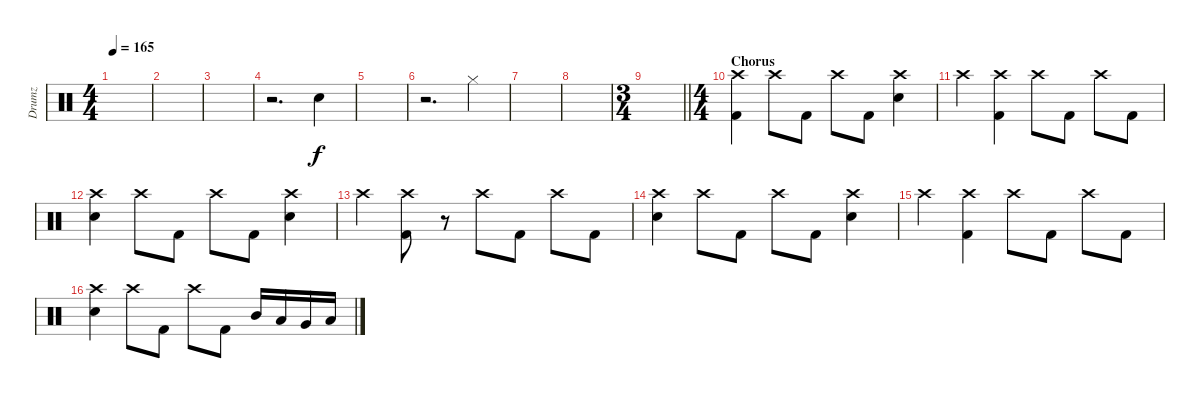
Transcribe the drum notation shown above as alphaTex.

\track ("Drumz" "Drumz") {instrument percussion}
\staff {score}
\articulation defaults
\ts (4 4)
\tempo 165
\clef neutral
\ks c
|
|
|
r.2{d} "Electric Snare (hit)".4 |
|
r.2{d} "Hi-Hat (closed)".4 |
|
|
\ts (3 4)
\barLineRight lightlight
|
\ts (4 4)
\section ("" "Chorus")
("Kick (hit) 2" "Crash high (hit)").4 "Crash high (hit)".8 "Kick (hit) 2".8 "Crash high (hit)".8 "Kick (hit) 2".8 ("Snare (hit) 2" "Crash high (hit)").4 |
"Crash high (hit)".4 ("Kick (hit) 2" "Crash high (hit)").4 "Crash high (hit)".8 "Kick (hit) 2".8 "Crash high (hit)".8 "Kick (hit) 2".8 |
("Snare (hit) 2" "Crash high (hit)").4 "Crash high (hit)".8 "Kick (hit) 2".8 "Crash high (hit)".8 "Kick (hit) 2".8 ("Snare (hit) 2" "Crash high (hit)").4 |
"Crash high (hit)".4 ("Crash high (hit)" "Kick (hit) 2").8 r.8 "Crash high (hit)".8 "Kick (hit) 2".8 "Crash high (hit)".8 "Kick (hit) 2".8 |
("Crash high (hit)" "Snare (hit) 2").4 "Crash high (hit)".8 "Kick (hit) 2".8 "Crash high (hit)".8 "Kick (hit) 2".8 ("Snare (hit) 2" "Crash high (hit)").4 |
"Crash high (hit)".4 ("Crash high (hit)" "Kick (hit) 2").4 "Crash high (hit)".8 "Kick (hit) 2".8 "Crash high (hit)".8 "Kick (hit) 2".8 |
("Crash high (hit)" "Snare (hit) 2").4 "Crash high (hit)".8 "Kick (hit) 2".8 "Crash high (hit)".8 "Kick (hit) 2".8 "Mid Tom (hit)".16 "Low Tom (hit)".16 "Very Low Tom (hit)".16 "Low Floor Tom (hit)".16
